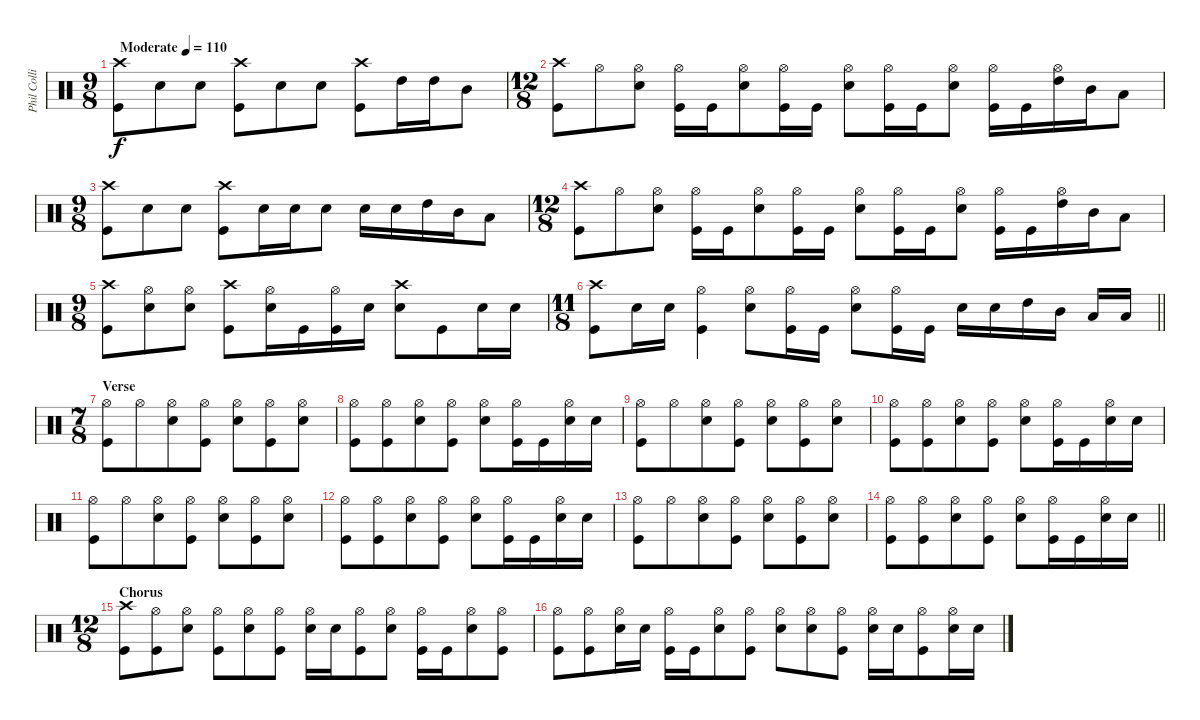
\track ("Phil Collins" "Phil Colli") {instrument percussion}
\staff {score}
\articulation defaults
\ts (9 8)
\tempo (110 "Moderate")
\clef neutral
\ks c
("Kick (hit)" "Crash high (hit)").8{dy f} "Snare (hit) 2".8 "Snare (hit) 2".8 ("Kick (hit)" "Crash high (hit)").8 "Snare (hit) 2".8 "Snare (hit) 2".8 ("Kick (hit)" "Crash high (hit)").8 "High Tom (hit)".16 "High Tom (hit)".16 "Mid Tom (hit)".8 |
\ts (12 8)
("Kick (hit)" "Crash high (hit)").8 "Hi-Hat (open)".8 ("Snare (hit) 2" "Hi-Hat (open)").8 ("Hi-Hat (open)" "Kick (hit)").16 "Kick (hit)".16 ("Hi-Hat (open)" "Snare (hit) 2").8 ("Hi-Hat (open)" "Kick (hit)").16 "Kick (hit)".16 ("Hi-Hat (open)" "Snare (hit) 2").8 ("Hi-Hat (open)" "Kick (hit)").16 "Kick (hit)".16 ("Hi-Hat (open)" "Snare (hit) 2").8 ("Hi-Hat (open)" "Kick (hit)").16 "Kick (hit)".16 ("Hi-Hat (open)" "High Tom (hit)").16 "Mid Tom (hit)".16 "Low Tom (hit)".8 |
\ts (9 8)
("Kick (hit)" "Crash high (hit)").8 "Snare (hit) 2".8 "Snare (hit) 2".8 ("Kick (hit)" "Crash high (hit)").8 "Snare (hit) 2".16 "Snare (hit) 2".16 "Snare (hit) 2".8 "Snare (hit) 2".16 "Snare (hit) 2".16 "High Tom (hit)".16 "Mid Tom (hit)".16 "Low Tom (hit)".8 |
\ts (12 8)
("Kick (hit)" "Crash high (hit)").8 "Hi-Hat (open)".8 ("Snare (hit) 2" "Hi-Hat (open)").8 ("Hi-Hat (open)" "Kick (hit)").16 "Kick (hit)".16 ("Hi-Hat (open)" "Snare (hit) 2").8 ("Hi-Hat (open)" "Kick (hit)").16 "Kick (hit)".16 ("Hi-Hat (open)" "Snare (hit) 2").8 ("Hi-Hat (open)" "Kick (hit)").16 "Kick (hit)".16 ("Hi-Hat (open)" "Snare (hit) 2").8 ("Hi-Hat (open)" "Kick (hit)").16 "Kick (hit)".16 ("Hi-Hat (open)" "High Tom (hit)").16 "Mid Tom (hit)".16 "Low Tom (hit)".8 |
\ts (9 8)
("Kick (hit)" "Crash high (hit)").8 ("Hi-Hat (open)" "Snare (hit) 2").8 ("Snare (hit) 2" "Hi-Hat (open)").8 ("Crash high (hit)" "Kick (hit)").8 ("Hi-Hat (open)" "Snare (hit) 2").16 "Kick (hit)".16 ("Kick (hit)" "Hi-Hat (open)").16 "Snare (hit) 2".16 ("Snare (hit) 2" "Crash high (hit)").8 "Kick (hit)".8 "Snare (hit) 2".16 "Snare (hit) 2".16 |
\ts (11 8)
\barLineRight lightlight
("Kick (hit)" "Crash high (hit)").8 "Snare (hit) 2".16 "Snare (hit) 2".16 ("Kick (hit)" "Hi-Hat (open)").4 ("Hi-Hat (open)" "Snare (hit) 2").8 ("Kick (hit)" "Hi-Hat (open)").16 "Kick (hit)".16 ("Snare (hit) 2" "Hi-Hat (open)").8 ("Kick (hit)" "Hi-Hat (open)").16 "Kick (hit)".16 "Snare (hit) 2".16 "Snare (hit) 2".16 "High Tom (hit)".16 "Mid Tom (hit)".16 "Low Tom (hit)".16 "Low Tom (hit)".16 |
\ts (7 8)
\section ("" "Verse")
("Kick (hit)" "Hi-Hat (open)").8 "Hi-Hat (open)".8 ("Hi-Hat (open)" "Snare (hit) 2").8 ("Hi-Hat (open)" "Kick (hit)").8 ("Hi-Hat (open)" "Snare (hit) 2").8 ("Hi-Hat (open)" "Kick (hit)").8 ("Hi-Hat (open)" "Snare (hit) 2").8 |
("Kick (hit)" "Hi-Hat (open)").8 ("Hi-Hat (open)" "Kick (hit)").8 ("Snare (hit) 2" "Hi-Hat (open)").8 ("Kick (hit)" "Hi-Hat (open)").8 ("Snare (hit) 2" "Hi-Hat (open)").8 ("Hi-Hat (open)" "Kick (hit)").16 "Kick (hit)".16 ("Snare (hit) 2" "Hi-Hat (open)").16 "Snare (hit) 2".16 |
("Kick (hit)" "Hi-Hat (open)").8 "Hi-Hat (open)".8 ("Hi-Hat (open)" "Snare (hit) 2").8 ("Hi-Hat (open)" "Kick (hit)").8 ("Hi-Hat (open)" "Snare (hit) 2").8 ("Hi-Hat (open)" "Kick (hit)").8 ("Hi-Hat (open)" "Snare (hit) 2").8 |
("Kick (hit)" "Hi-Hat (open)").8 ("Hi-Hat (open)" "Kick (hit)").8 ("Snare (hit) 2" "Hi-Hat (open)").8 ("Kick (hit)" "Hi-Hat (open)").8 ("Snare (hit) 2" "Hi-Hat (open)").8 ("Hi-Hat (open)" "Kick (hit)").16 "Kick (hit)".16 ("Snare (hit) 2" "Hi-Hat (open)").16 "Snare (hit) 2".16 |
("Kick (hit)" "Hi-Hat (open)").8 "Hi-Hat (open)".8 ("Hi-Hat (open)" "Snare (hit) 2").8 ("Hi-Hat (open)" "Kick (hit)").8 ("Hi-Hat (open)" "Snare (hit) 2").8 ("Hi-Hat (open)" "Kick (hit)").8 ("Hi-Hat (open)" "Snare (hit) 2").8 |
("Kick (hit)" "Hi-Hat (open)").8 ("Hi-Hat (open)" "Kick (hit)").8 ("Snare (hit) 2" "Hi-Hat (open)").8 ("Kick (hit)" "Hi-Hat (open)").8 ("Snare (hit) 2" "Hi-Hat (open)").8 ("Hi-Hat (open)" "Kick (hit)").16 "Kick (hit)".16 ("Snare (hit) 2" "Hi-Hat (open)").16 "Snare (hit) 2".16 |
("Kick (hit)" "Hi-Hat (open)").8 "Hi-Hat (open)".8 ("Hi-Hat (open)" "Snare (hit) 2").8 ("Hi-Hat (open)" "Kick (hit)").8 ("Hi-Hat (open)" "Snare (hit) 2").8 ("Hi-Hat (open)" "Kick (hit)").8 ("Hi-Hat (open)" "Snare (hit) 2").8 |
\barLineRight lightlight
("Kick (hit)" "Hi-Hat (open)").8 ("Hi-Hat (open)" "Kick (hit)").8 ("Snare (hit) 2" "Hi-Hat (open)").8 ("Kick (hit)" "Hi-Hat (open)").8 ("Snare (hit) 2" "Hi-Hat (open)").8 ("Hi-Hat (open)" "Kick (hit)").16 "Kick (hit)".16 ("Snare (hit) 2" "Hi-Hat (open)").16 "Snare (hit) 2".16 |
\ts (12 8)
\section ("" "Chorus")
("Kick (hit)" "Crash high (hit)").8 ("Hi-Hat (open)" "Kick (hit)").8 ("Hi-Hat (open)" "Snare (hit) 2").8 ("Hi-Hat (open)" "Kick (hit)").8 ("Hi-Hat (open)" "Snare (hit) 2").8 ("Hi-Hat (open)" "Kick (hit)").8 ("Hi-Hat (open)" "Snare (hit) 2").16 "Snare (hit) 2".16 ("Hi-Hat (open)" "Kick (hit)").8 ("Hi-Hat (open)" "Snare (hit) 2").8 ("Hi-Hat (open)" "Kick (hit)").16 "Kick (hit)".16 ("Snare (hit) 2" "Hi-Hat (open)").8 ("Kick (hit)" "Hi-Hat (open)").8 |
("Kick (hit)" "Hi-Hat (open)").8 ("Hi-Hat (open)" "Kick (hit)").8 ("Hi-Hat (open)" "Snare (hit) 2").16 "Snare (hit) 2".16 ("Kick (hit)" "Hi-Hat (open)").16 "Kick (hit)".16 ("Snare (hit) 2" "Hi-Hat (open)").8 ("Kick (hit)" "Hi-Hat (open)").8 ("Snare (hit) 2" "Hi-Hat (open)").8 ("Snare (hit) 2" "Hi-Hat (open)").8 ("Kick (hit)" "Hi-Hat (open)").8 ("Snare (hit) 2" "Hi-Hat (open)").16 "Snare (hit) 2".16 ("Kick (hit)" "Hi-Hat (open)").8 ("Snare (hit) 2" "Hi-Hat (open)").16 "Snare (hit) 2".16
